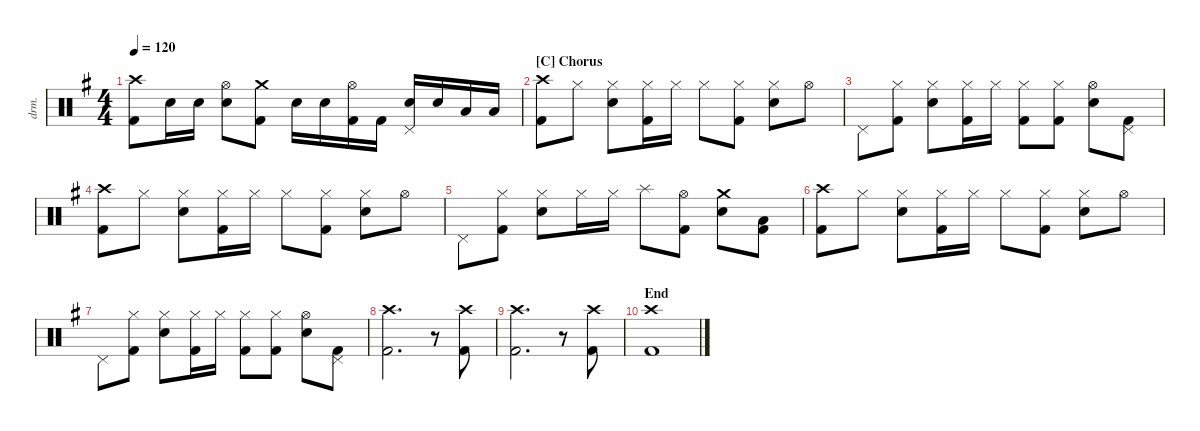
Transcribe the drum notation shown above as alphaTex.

\defaultSystemsLayout 4
\hideDynamics
\bracketExtendMode nobrackets
\track ("Drums" "drm.") {instrument percussion}
\staff {score}
\articulation defaults
\ts (4 4)
\tempo 120
\clef neutral
\ks g
("Kick (hit) 2"{acc forcenatural} "Crash high (hit)"{acc forcenatural}).8{dy mf beam Down} "Snare (hit) 2"{acc forcenatural}.16{beam Down} "Snare (hit) 2"{acc forcenatural}.16{beam Down} ("Snare (hit) 2"{acc forcenatural} "Hi-Hat (open)"{acc forcenatural}).8{beam Down} ("Kick (hit) 2"{acc forcenatural} "Crash medium (hit)"{acc forcenatural}).8{beam Down} "Snare (hit) 2"{acc forcenatural}.16{beam Down} "Snare (hit) 2"{acc forcenatural}.16{beam Down} ("Kick (hit) 2"{acc forcenatural} "Hi-Hat (open)"{acc forcenatural}).16{beam Down} "Kick (hit) 2"{acc forcenatural}.16{beam Down} ("Snare (hit) 2"{acc forcenatural} "Pedal Hi-Hat (hit)"{acc forcenatural}).16{beam Up} "Snare (hit) 2"{acc forcenatural}.16{beam Up} "Low Tom (hit)"{acc forcenatural}.16{beam Up} "Low Tom (hit)"{acc forcenatural}.16{beam Up} |
\section ("C" "Chorus")
("Kick (hit) 2"{acc forcenatural} "Crash high (hit)"{acc forcenatural}).8{beam Down} "Hi-Hat (closed)"{acc forcenatural}.8{beam Down} ("Snare (hit) 2"{acc forcenatural} "Hi-Hat (closed)"{acc forcenatural}).8{beam Down} ("Kick (hit) 2"{acc forcenatural} "Hi-Hat (closed)"{acc forcenatural}).16{beam Down} "Hi-Hat (closed)"{acc forcenatural}.16{beam Down} "Hi-Hat (closed)"{acc forcenatural}.8{beam Down} ("Kick (hit) 2"{acc forcenatural} "Hi-Hat (closed)"{acc forcenatural}).8{beam Down} ("Snare (hit) 2"{acc forcenatural} "Hi-Hat (closed)"{acc forcenatural}).8{beam Down} "Hi-Hat (open)"{acc forcenatural}.8{beam Down} |
"Pedal Hi-Hat (hit)"{acc forcenatural}.8{beam Down} ("Kick (hit) 2"{acc forcenatural} "Hi-Hat (closed)"{acc forcenatural}).8{beam Down} ("Snare (hit) 2"{acc forcenatural} "Hi-Hat (closed)"{acc forcenatural}).8{beam Down} ("Kick (hit) 2"{acc forcenatural} "Hi-Hat (closed)"{acc forcenatural}).16{beam Down} "Hi-Hat (closed)"{acc forcenatural}.16{beam Down} ("Kick (hit) 2"{acc forcenatural} "Hi-Hat (closed)"{acc forcenatural}).8{beam Down} ("Kick (hit) 2"{acc forcenatural} "Hi-Hat (closed)"{acc forcenatural}).8{beam Down} ("Snare (hit) 2"{acc forcenatural} "Hi-Hat (open)"{acc forcenatural}).8{beam Down} ("Kick (hit) 2"{acc forcenatural} "Pedal Hi-Hat (hit)"{acc forcenatural}).8{beam Down} |
("Kick (hit) 2"{acc forcenatural} "Crash high (hit)"{acc forcenatural}).8{beam Down} "Hi-Hat (closed)"{acc forcenatural}.8{beam Down} ("Snare (hit) 2"{acc forcenatural} "Hi-Hat (closed)"{acc forcenatural}).8{beam Down} ("Kick (hit) 2"{acc forcenatural} "Hi-Hat (closed)"{acc forcenatural}).16{beam Down} "Hi-Hat (closed)"{acc forcenatural}.16{beam Down} "Hi-Hat (closed)"{acc forcenatural}.8{beam Down} ("Kick (hit) 2"{acc forcenatural} "Hi-Hat (closed)"{acc forcenatural}).8{beam Down} ("Snare (hit) 2"{acc forcenatural} "Hi-Hat (closed)"{acc forcenatural}).8{beam Down} "Hi-Hat (open)"{acc forcenatural}.8{beam Down} |
"Pedal Hi-Hat (hit)"{acc forcenatural}.8{beam Down} ("Kick (hit) 2"{acc forcenatural} "Hi-Hat (closed)"{acc forcenatural}).8{beam Down} ("Snare (hit) 2"{acc forcenatural} "Hi-Hat (closed)"{acc forcenatural}).8{beam Down} "Hi-Hat (closed)"{acc forcenatural}.16{beam Down} "Hi-Hat (closed)"{acc forcenatural}.16{beam Down} "Splash (hit)"{acc forcenatural}.8{beam Down} ("Kick (hit) 2"{acc forcenatural} "Hi-Hat (open)"{acc forcenatural}).8{beam Down} ("Snare (hit) 2"{acc forcenatural} "Crash medium (hit)"{acc forcenatural}).8{beam Down} ("Kick (hit) 2"{acc forcenatural} "Low Tom (hit)"{acc forcenatural}).8{beam Down} |
("Kick (hit) 2"{acc forcenatural} "Crash high (hit)"{acc forcenatural}).8{beam Down} "Hi-Hat (closed)"{acc forcenatural}.8{beam Down} ("Snare (hit) 2"{acc forcenatural} "Hi-Hat (closed)"{acc forcenatural}).8{beam Down} ("Kick (hit) 2"{acc forcenatural} "Hi-Hat (closed)"{acc forcenatural}).16{beam Down} "Hi-Hat (closed)"{acc forcenatural}.16{beam Down} "Hi-Hat (closed)"{acc forcenatural}.8{beam Down} ("Kick (hit) 2"{acc forcenatural} "Hi-Hat (closed)"{acc forcenatural}).8{beam Down} ("Snare (hit) 2"{acc forcenatural} "Hi-Hat (closed)"{acc forcenatural}).8{beam Down} "Hi-Hat (open)"{acc forcenatural}.8{beam Down} |
"Pedal Hi-Hat (hit)"{acc forcenatural}.8{beam Down} ("Kick (hit) 2"{acc forcenatural} "Hi-Hat (closed)"{acc forcenatural}).8{beam Down} ("Snare (hit) 2"{acc forcenatural} "Hi-Hat (closed)"{acc forcenatural}).8{beam Down} ("Kick (hit) 2"{acc forcenatural} "Hi-Hat (closed)"{acc forcenatural}).16{beam Down} "Hi-Hat (closed)"{acc forcenatural}.16{beam Down} ("Kick (hit) 2"{acc forcenatural} "Hi-Hat (closed)"{acc forcenatural}).8{beam Down} ("Kick (hit) 2"{acc forcenatural} "Hi-Hat (closed)"{acc forcenatural}).8{beam Down} ("Snare (hit) 2"{acc forcenatural} "Hi-Hat (open)"{acc forcenatural}).8{beam Down} ("Kick (hit) 2"{acc forcenatural} "Pedal Hi-Hat (hit)"{acc forcenatural}).8{beam Down} |
("Crash high (hit)"{acc forcenatural} "Kick (hit) 2"{acc forcenatural}).2{d beam Down} r.8{beam Down} ("Crash high (hit)"{acc forcenatural} "Kick (hit) 2"{acc forcenatural}).8{beam Down} |
("Crash high (hit)"{acc forcenatural} "Kick (hit) 2"{acc forcenatural}).2{d beam Down} r.8{beam Down} ("Crash high (hit)"{acc forcenatural} "Kick (hit) 2"{acc forcenatural}).8{beam Down} |
\section ("" "End")
("Crash high (hit)"{acc forcenatural} "Kick (hit) 2"{acc forcenatural}).1{beam Down}
